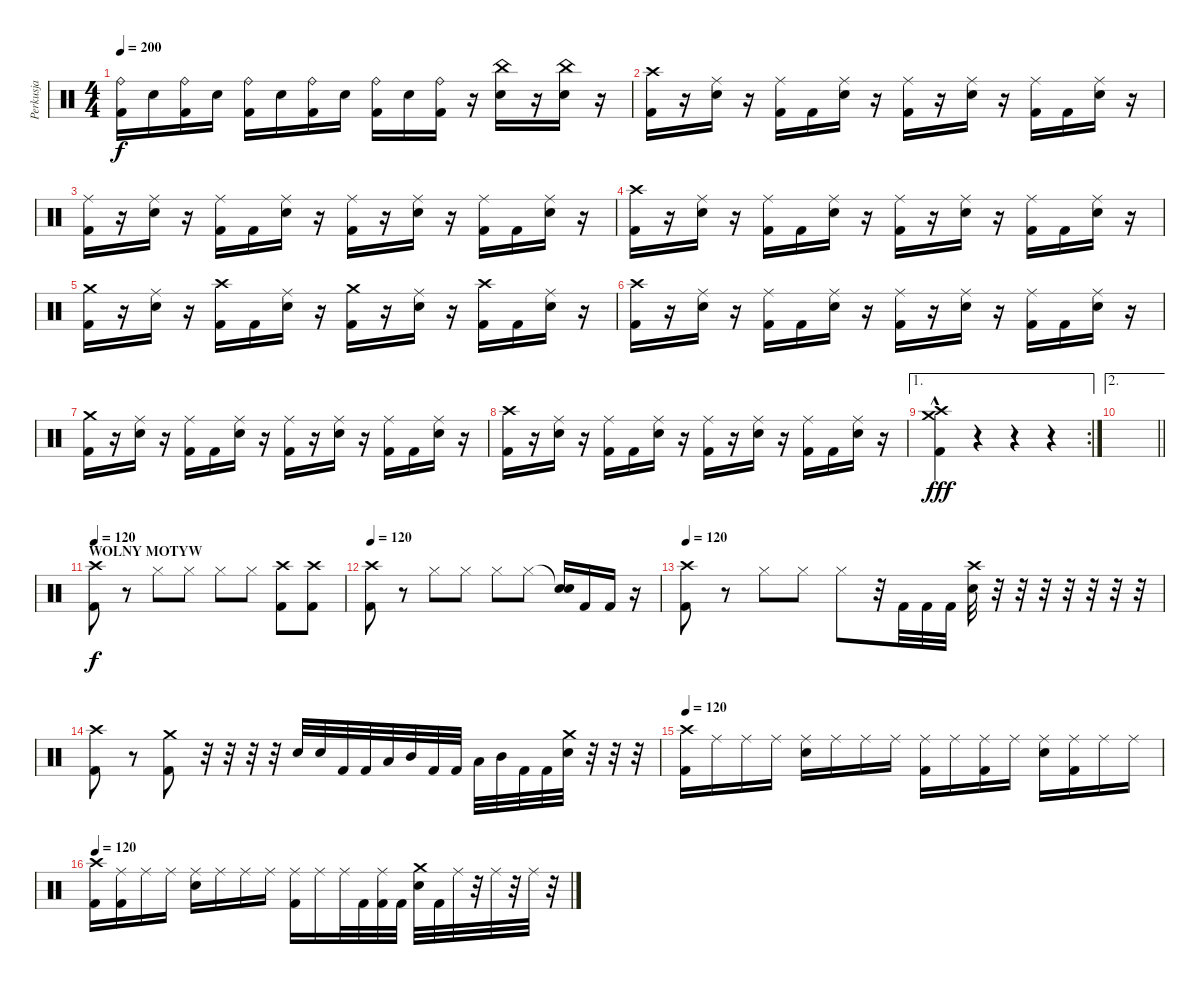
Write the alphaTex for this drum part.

\track ("Perkusja" "Perkusja") {instrument percussion}
\staff {score}
\articulation defaults
\ts (4 4)
\tempo 200
\clef neutral
\ks c
("Ride (bell)" "Kick (hit) 2").16{dy f} "Snare (hit) 2".16 ("Ride (bell)" "Kick (hit) 2").16 "Snare (hit) 2".16 ("Ride (bell)" "Kick (hit) 2").16 "Snare (hit) 2".16 ("Ride (bell)" "Kick (hit) 2").16 "Snare (hit) 2".16 ("Ride (bell)" "Kick (hit) 2").16 "Snare (hit) 2".16 ("Ride (bell)" "Kick (hit) 2").16 r.16 ("China (hit)" "Snare (hit) 2").16 r.16 ("China (hit)" "Snare (hit) 2").16 r.16 |
("Crash high (hit)" "Kick (hit) 2").16 r.16 ("Ride (middle)" "Snare (hit) 2").16 r.16 ("Ride (middle)" "Kick (hit) 2").16 "Kick (hit) 2".16 ("Ride (middle)" "Snare (hit) 2").16 r.16 ("Ride (middle)" "Kick (hit) 2").16 r.16 ("Ride (middle)" "Snare (hit) 2").16 r.16 ("Ride (middle)" "Kick (hit) 2").16 "Kick (hit) 2".16 ("Ride (middle)" "Snare (hit) 2").16 r.16 |
("Ride (middle)" "Kick (hit) 2").16 r.16 ("Ride (middle)" "Snare (hit) 2").16 r.16 ("Ride (middle)" "Kick (hit) 2").16 "Kick (hit) 2".16 ("Ride (middle)" "Snare (hit) 2").16 r.16 ("Ride (middle)" "Kick (hit) 2").16 r.16 ("Ride (middle)" "Snare (hit) 2").16 r.16 ("Ride (middle)" "Kick (hit) 2").16 "Kick (hit) 2".16 ("Ride (middle)" "Snare (hit) 2").16 r.16 |
("Crash high (hit)" "Kick (hit) 2").16 r.16 ("Ride (middle)" "Snare (hit) 2").16 r.16 ("Ride (middle)" "Kick (hit) 2").16 "Kick (hit) 2".16 ("Ride (middle)" "Snare (hit) 2").16 r.16 ("Ride (middle)" "Kick (hit) 2").16 r.16 ("Ride (middle)" "Snare (hit) 2").16 r.16 ("Ride (middle)" "Kick (hit) 2").16 "Kick (hit) 2".16 ("Ride (middle)" "Snare (hit) 2").16 r.16 |
("Crash medium (hit)" "Kick (hit) 2").16 r.16 ("Ride (middle)" "Snare (hit) 2").16 r.16 ("Crash high (hit)" "Kick (hit) 2").16 "Kick (hit) 2".16 ("Ride (middle)" "Snare (hit) 2").16 r.16 ("Crash medium (hit)" "Kick (hit) 2").16 r.16 ("Ride (middle)" "Snare (hit) 2").16 r.16 ("Crash high (hit)" "Kick (hit) 2").16 "Kick (hit) 2".16 ("Ride (middle)" "Snare (hit) 2").16 r.16 |
("Crash high (hit)" "Kick (hit) 2").16 r.16 ("Ride (middle)" "Snare (hit) 2").16 r.16 ("Ride (middle)" "Kick (hit) 2").16 "Kick (hit) 2".16 ("Ride (middle)" "Snare (hit) 2").16 r.16 ("Ride (middle)" "Kick (hit) 2").16 r.16 ("Ride (middle)" "Snare (hit) 2").16 r.16 ("Ride (middle)" "Kick (hit) 2").16 "Kick (hit) 2".16 ("Ride (middle)" "Snare (hit) 2").16 r.16 |
("Crash medium (hit)" "Kick (hit) 2").16 r.16 ("Ride (middle)" "Snare (hit) 2").16 r.16 ("Ride (middle)" "Kick (hit) 2").16 "Kick (hit) 2".16 ("Ride (middle)" "Snare (hit) 2").16 r.16 ("Ride (middle)" "Kick (hit) 2").16 r.16 ("Ride (middle)" "Snare (hit) 2").16 r.16 ("Ride (middle)" "Kick (hit) 2").16 "Kick (hit) 2".16 ("Ride (middle)" "Snare (hit) 2").16 r.16 |
("Crash high (hit)" "Kick (hit) 2").16 r.16 ("Ride (middle)" "Snare (hit) 2").16 r.16 ("Ride (middle)" "Kick (hit) 2").16 "Kick (hit) 2".16 ("Ride (middle)" "Snare (hit) 2").16 r.16 ("Ride (middle)" "Kick (hit) 2").16 r.16 ("Ride (middle)" "Snare (hit) 2").16 r.16 ("Ride (middle)" "Kick (hit) 2").16 "Kick (hit) 2".16 ("Ride (middle)" "Snare (hit) 2").16 r.16 |
\ae 1
\rc 2
("Crash high (hit)"{hac} "Crash medium (hit)"{hac} "Kick (hit) 2").4{dy fff} r.4 r.4 r.4 |
\ae 2
\barLineRight lightlight
|
\section ("" "WOLNY MOTYW")
\tempo 120
("Crash high (hit)" "Kick (hit) 2").8{dy f} r.8 "Hi-Hat (closed)".8 "Hi-Hat (closed)".8 "Hi-Hat (closed)".8 "Hi-Hat (closed)".8 ("Crash high (hit)" "Kick (hit) 2").8 ("Crash high (hit)" "Kick (hit) 2").8 |
\tempo 120
("Crash high (hit)" "Kick (hit) 2").8 r.8 "Hi-Hat (closed)".8 "Hi-Hat (closed)".8 "Hi-Hat (closed)".8 "Hi-Hat (closed)".8 ("Snare (hit)"{t} "Snare (hit) 2").16 "Kick (hit) 2".16 "Kick (hit) 2".16 r.16 |
\tempo 120
("Crash high (hit)" "Kick (hit) 2").8 r.8 "Hi-Hat (closed)".8 "Hi-Hat (closed)".8 "Hi-Hat (closed)".8 r.32 "Kick (hit) 2".32 "Kick (hit) 2".32 "Kick (hit) 2".32 ("Crash high (hit)" "Snare (hit) 2").32 r.32 r.32 r.32 r.32 r.32 r.32 r.32 |
("Crash high (hit)" "Kick (hit) 2").8 r.8 ("Crash medium (hit)" "Kick (hit) 2").8 r.32 r.32 r.32 r.32 "Snare (hit) 2".32 "Snare (hit) 2".32 "Kick (hit) 2".32 "Kick (hit) 2".32 "Low Tom (hit)".32 "Mid Tom (hit)".32 "Kick (hit) 2".32 "Kick (hit) 2".32 "Low Tom (hit)".32 "Mid Tom (hit)".32 "Kick (hit) 2".32 "Kick (hit) 2".32 ("Crash medium (hit)" "Snare (hit) 2").32 r.32 r.32 r.32 |
\tempo 120
("Crash high (hit)" "Kick (hit) 2").16 "Ride (middle)".16 "Ride (middle)".16 "Ride (middle)".16 ("Ride (middle)" "Snare (hit) 2").16 "Ride (middle)".16 "Ride (middle)".16 "Ride (middle)".16 ("Ride (middle)" "Kick (hit) 2").16 "Ride (middle)".16 ("Ride (middle)" "Kick (hit) 2").16 "Ride (middle)".16 ("Ride (middle)" "Snare (hit) 2").16 ("Ride (middle)" "Kick (hit) 2").16 "Ride (middle)".16 "Ride (middle)".16 |
\tempo 120
("Crash high (hit)" "Kick (hit) 2").16 ("Ride (middle)" "Kick (hit) 2").16 "Ride (middle)".16 "Ride (middle)".16 ("Ride (middle)" "Snare (hit) 2").16 "Ride (middle)".16 "Ride (middle)".16 "Ride (middle)".16 ("Ride (middle)" "Kick (hit) 2").16 "Ride (middle)".16 "Ride (middle)".32 "Kick (hit) 2".32 ("Ride (middle)" "Kick (hit) 2").32 "Kick (hit) 2".32 ("Crash medium (hit)" "Snare (hit) 2").32 "Kick (hit) 2".32 "Ride (middle)".32 r.32 "Ride (middle)".32 r.32 "Ride (middle)".32 r.32
